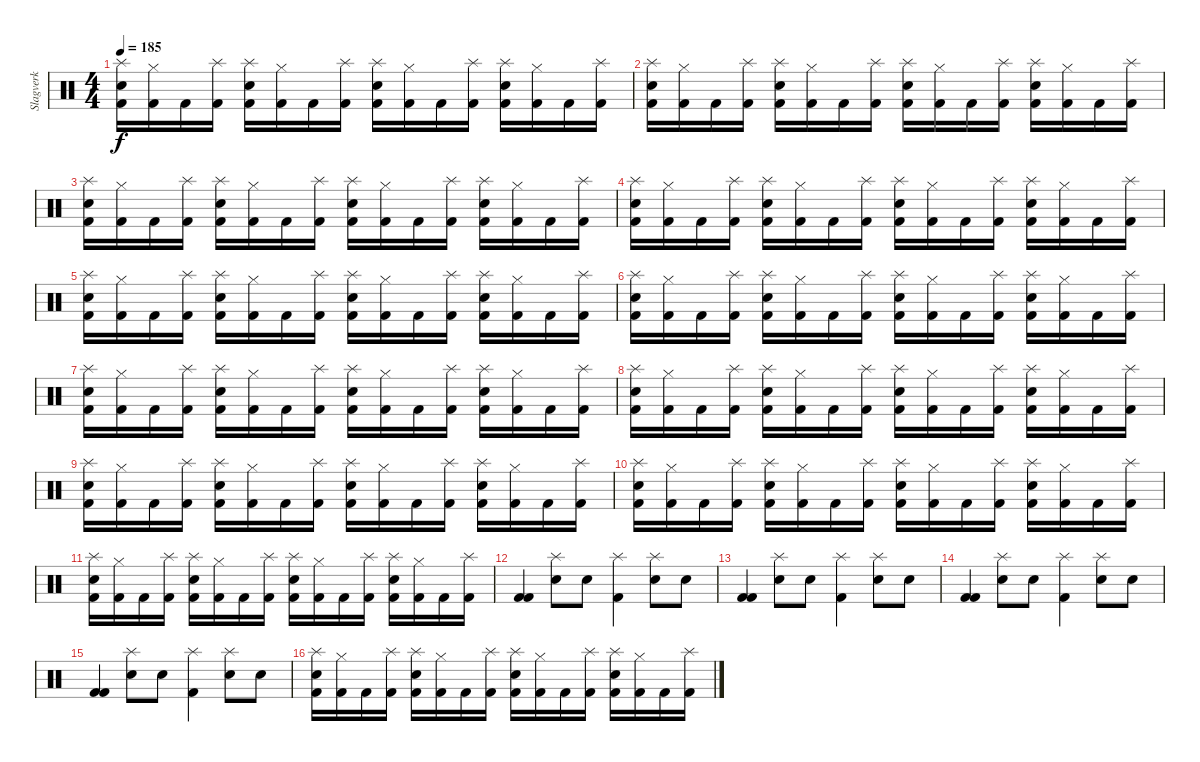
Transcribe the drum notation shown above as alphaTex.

\track ("Slagverk" "Slagverk") {instrument percussion}
\staff {score}
\articulation defaults
\ts (4 4)
\tempo 185
\clef neutral
\ks c
("Kick (hit) 2" "Electric Snare (hit)" "Splash (hit)").16{dy f} ("Kick (hit) 2" "Hi-Hat (closed)").16 "Kick (hit) 2".16 ("Kick (hit) 2" "Splash (hit)").16 ("Kick (hit) 2" "Electric Snare (hit)" "Splash (hit)").16 ("Kick (hit) 2" "Hi-Hat (closed)").16 "Kick (hit) 2".16 ("Kick (hit) 2" "Splash (hit)").16 ("Kick (hit) 2" "Electric Snare (hit)" "Splash (hit)").16 ("Kick (hit) 2" "Hi-Hat (closed)").16 "Kick (hit) 2".16 ("Kick (hit) 2" "Splash (hit)").16 ("Kick (hit) 2" "Electric Snare (hit)" "Splash (hit)").16 ("Kick (hit) 2" "Hi-Hat (closed)").16 "Kick (hit) 2".16 ("Kick (hit) 2" "Splash (hit)").16 |
("Kick (hit) 2" "Electric Snare (hit)" "Splash (hit)").16 ("Kick (hit) 2" "Hi-Hat (closed)").16 "Kick (hit) 2".16 ("Kick (hit) 2" "Splash (hit)").16 ("Kick (hit) 2" "Electric Snare (hit)" "Splash (hit)").16 ("Kick (hit) 2" "Hi-Hat (closed)").16 "Kick (hit) 2".16 ("Kick (hit) 2" "Splash (hit)").16 ("Kick (hit) 2" "Electric Snare (hit)" "Splash (hit)").16 ("Kick (hit) 2" "Hi-Hat (closed)").16 "Kick (hit) 2".16 ("Kick (hit) 2" "Splash (hit)").16 ("Kick (hit) 2" "Electric Snare (hit)" "Splash (hit)").16 ("Kick (hit) 2" "Hi-Hat (closed)").16 "Kick (hit) 2".16 ("Kick (hit) 2" "Splash (hit)").16 |
("Kick (hit) 2" "Electric Snare (hit)" "Splash (hit)").16 ("Kick (hit) 2" "Hi-Hat (closed)").16 "Kick (hit) 2".16 ("Kick (hit) 2" "Splash (hit)").16 ("Kick (hit) 2" "Electric Snare (hit)" "Splash (hit)").16 ("Kick (hit) 2" "Hi-Hat (closed)").16 "Kick (hit) 2".16 ("Kick (hit) 2" "Splash (hit)").16 ("Kick (hit) 2" "Electric Snare (hit)" "Splash (hit)").16 ("Kick (hit) 2" "Hi-Hat (closed)").16 "Kick (hit) 2".16 ("Kick (hit) 2" "Splash (hit)").16 ("Kick (hit) 2" "Electric Snare (hit)" "Splash (hit)").16 ("Kick (hit) 2" "Hi-Hat (closed)").16 "Kick (hit) 2".16 ("Kick (hit) 2" "Splash (hit)").16 |
("Kick (hit) 2" "Electric Snare (hit)" "Splash (hit)").16 ("Kick (hit) 2" "Hi-Hat (closed)").16 "Kick (hit) 2".16 ("Kick (hit) 2" "Splash (hit)").16 ("Kick (hit) 2" "Electric Snare (hit)" "Splash (hit)").16 ("Kick (hit) 2" "Hi-Hat (closed)").16 "Kick (hit) 2".16 ("Kick (hit) 2" "Splash (hit)").16 ("Kick (hit) 2" "Electric Snare (hit)" "Splash (hit)").16 ("Kick (hit) 2" "Hi-Hat (closed)").16 "Kick (hit) 2".16 ("Kick (hit) 2" "Splash (hit)").16 ("Kick (hit) 2" "Electric Snare (hit)" "Splash (hit)").16 ("Kick (hit) 2" "Hi-Hat (closed)").16 "Kick (hit) 2".16 ("Kick (hit) 2" "Splash (hit)").16 |
("Kick (hit) 2" "Electric Snare (hit)" "Splash (hit)").16 ("Kick (hit) 2" "Hi-Hat (closed)").16 "Kick (hit) 2".16 ("Kick (hit) 2" "Splash (hit)").16 ("Kick (hit) 2" "Electric Snare (hit)" "Splash (hit)").16 ("Kick (hit) 2" "Hi-Hat (closed)").16 "Kick (hit) 2".16 ("Kick (hit) 2" "Splash (hit)").16 ("Kick (hit) 2" "Electric Snare (hit)" "Splash (hit)").16 ("Kick (hit) 2" "Hi-Hat (closed)").16 "Kick (hit) 2".16 ("Kick (hit) 2" "Splash (hit)").16 ("Kick (hit) 2" "Electric Snare (hit)" "Splash (hit)").16 ("Kick (hit) 2" "Hi-Hat (closed)").16 "Kick (hit) 2".16 ("Kick (hit) 2" "Splash (hit)").16 |
("Kick (hit) 2" "Electric Snare (hit)" "Splash (hit)").16 ("Kick (hit) 2" "Hi-Hat (closed)").16 "Kick (hit) 2".16 ("Kick (hit) 2" "Splash (hit)").16 ("Kick (hit) 2" "Electric Snare (hit)" "Splash (hit)").16 ("Kick (hit) 2" "Hi-Hat (closed)").16 "Kick (hit) 2".16 ("Kick (hit) 2" "Splash (hit)").16 ("Kick (hit) 2" "Electric Snare (hit)" "Splash (hit)").16 ("Kick (hit) 2" "Hi-Hat (closed)").16 "Kick (hit) 2".16 ("Kick (hit) 2" "Splash (hit)").16 ("Kick (hit) 2" "Electric Snare (hit)" "Splash (hit)").16 ("Kick (hit) 2" "Hi-Hat (closed)").16 "Kick (hit) 2".16 ("Kick (hit) 2" "Splash (hit)").16 |
("Kick (hit) 2" "Electric Snare (hit)" "Splash (hit)").16 ("Kick (hit) 2" "Hi-Hat (closed)").16 "Kick (hit) 2".16 ("Kick (hit) 2" "Splash (hit)").16 ("Kick (hit) 2" "Electric Snare (hit)" "Splash (hit)").16 ("Kick (hit) 2" "Hi-Hat (closed)").16 "Kick (hit) 2".16 ("Kick (hit) 2" "Splash (hit)").16 ("Kick (hit) 2" "Electric Snare (hit)" "Splash (hit)").16 ("Kick (hit) 2" "Hi-Hat (closed)").16 "Kick (hit) 2".16 ("Kick (hit) 2" "Splash (hit)").16 ("Kick (hit) 2" "Electric Snare (hit)" "Splash (hit)").16 ("Kick (hit) 2" "Hi-Hat (closed)").16 "Kick (hit) 2".16 ("Kick (hit) 2" "Splash (hit)").16 |
("Kick (hit) 2" "Electric Snare (hit)" "Splash (hit)").16 ("Kick (hit) 2" "Hi-Hat (closed)").16 "Kick (hit) 2".16 ("Kick (hit) 2" "Splash (hit)").16 ("Kick (hit) 2" "Electric Snare (hit)" "Splash (hit)").16 ("Kick (hit) 2" "Hi-Hat (closed)").16 "Kick (hit) 2".16 ("Kick (hit) 2" "Splash (hit)").16 ("Kick (hit) 2" "Electric Snare (hit)" "Splash (hit)").16 ("Kick (hit) 2" "Hi-Hat (closed)").16 "Kick (hit) 2".16 ("Kick (hit) 2" "Splash (hit)").16 ("Kick (hit) 2" "Electric Snare (hit)" "Splash (hit)").16 ("Kick (hit) 2" "Hi-Hat (closed)").16 "Kick (hit) 2".16 ("Kick (hit) 2" "Splash (hit)").16 |
("Kick (hit) 2" "Electric Snare (hit)" "Splash (hit)").16 ("Kick (hit) 2" "Hi-Hat (closed)").16 "Kick (hit) 2".16 ("Kick (hit) 2" "Splash (hit)").16 ("Kick (hit) 2" "Electric Snare (hit)" "Splash (hit)").16 ("Kick (hit) 2" "Hi-Hat (closed)").16 "Kick (hit) 2".16 ("Kick (hit) 2" "Splash (hit)").16 ("Kick (hit) 2" "Electric Snare (hit)" "Splash (hit)").16 ("Kick (hit) 2" "Hi-Hat (closed)").16 "Kick (hit) 2".16 ("Kick (hit) 2" "Splash (hit)").16 ("Kick (hit) 2" "Electric Snare (hit)" "Splash (hit)").16 ("Kick (hit) 2" "Hi-Hat (closed)").16 "Kick (hit) 2".16 ("Kick (hit) 2" "Splash (hit)").16 |
("Kick (hit) 2" "Electric Snare (hit)" "Splash (hit)").16 ("Kick (hit) 2" "Hi-Hat (closed)").16 "Kick (hit) 2".16 ("Kick (hit) 2" "Splash (hit)").16 ("Kick (hit) 2" "Electric Snare (hit)" "Splash (hit)").16 ("Kick (hit) 2" "Hi-Hat (closed)").16 "Kick (hit) 2".16 ("Kick (hit) 2" "Splash (hit)").16 ("Kick (hit) 2" "Electric Snare (hit)" "Splash (hit)").16 ("Kick (hit) 2" "Hi-Hat (closed)").16 "Kick (hit) 2".16 ("Kick (hit) 2" "Splash (hit)").16 ("Kick (hit) 2" "Electric Snare (hit)" "Splash (hit)").16 ("Kick (hit) 2" "Hi-Hat (closed)").16 "Kick (hit) 2".16 ("Kick (hit) 2" "Splash (hit)").16 |
("Kick (hit) 2" "Electric Snare (hit)" "Splash (hit)").16 ("Kick (hit) 2" "Hi-Hat (closed)").16 "Kick (hit) 2".16 ("Kick (hit) 2" "Splash (hit)").16 ("Kick (hit) 2" "Electric Snare (hit)" "Splash (hit)").16 ("Kick (hit) 2" "Hi-Hat (closed)").16 "Kick (hit) 2".16 ("Kick (hit) 2" "Splash (hit)").16 ("Kick (hit) 2" "Electric Snare (hit)" "Splash (hit)").16 ("Kick (hit) 2" "Hi-Hat (closed)").16 "Kick (hit) 2".16 ("Kick (hit) 2" "Splash (hit)").16 ("Kick (hit) 2" "Electric Snare (hit)" "Splash (hit)").16 ("Kick (hit) 2" "Hi-Hat (closed)").16 "Kick (hit) 2".16 ("Kick (hit) 2" "Splash (hit)").16 |
("Kick (hit) 2" "Kick (hit) 2").4 ("Splash (hit)" "Electric Snare (hit)").8 "Electric Snare (hit)".8 ("Splash (hit)" "Kick (hit) 2").4 ("Splash (hit)" "Electric Snare (hit)").8 "Electric Snare (hit)".8 |
("Kick (hit) 2" "Kick (hit) 2").4 ("Splash (hit)" "Electric Snare (hit)").8 "Electric Snare (hit)".8 ("Splash (hit)" "Kick (hit) 2").4 ("Splash (hit)" "Electric Snare (hit)").8 "Electric Snare (hit)".8 |
("Kick (hit) 2" "Kick (hit) 2").4 ("Splash (hit)" "Electric Snare (hit)").8 "Electric Snare (hit)".8 ("Splash (hit)" "Kick (hit) 2").4 ("Splash (hit)" "Electric Snare (hit)").8 "Electric Snare (hit)".8 |
("Kick (hit) 2" "Kick (hit) 2").4 ("Splash (hit)" "Electric Snare (hit)").8 "Electric Snare (hit)".8 ("Splash (hit)" "Kick (hit) 2").4 ("Splash (hit)" "Electric Snare (hit)").8 "Electric Snare (hit)".8 |
("Kick (hit) 2" "Electric Snare (hit)" "Splash (hit)").16 ("Kick (hit) 2" "Hi-Hat (closed)").16 "Kick (hit) 2".16 ("Kick (hit) 2" "Splash (hit)").16 ("Kick (hit) 2" "Electric Snare (hit)" "Splash (hit)").16 ("Kick (hit) 2" "Hi-Hat (closed)").16 "Kick (hit) 2".16 ("Kick (hit) 2" "Splash (hit)").16 ("Kick (hit) 2" "Electric Snare (hit)" "Splash (hit)").16 ("Kick (hit) 2" "Hi-Hat (closed)").16 "Kick (hit) 2".16 ("Kick (hit) 2" "Splash (hit)").16 ("Kick (hit) 2" "Electric Snare (hit)" "Splash (hit)").16 ("Kick (hit) 2" "Hi-Hat (closed)").16 "Kick (hit) 2".16 ("Kick (hit) 2" "Splash (hit)").16
